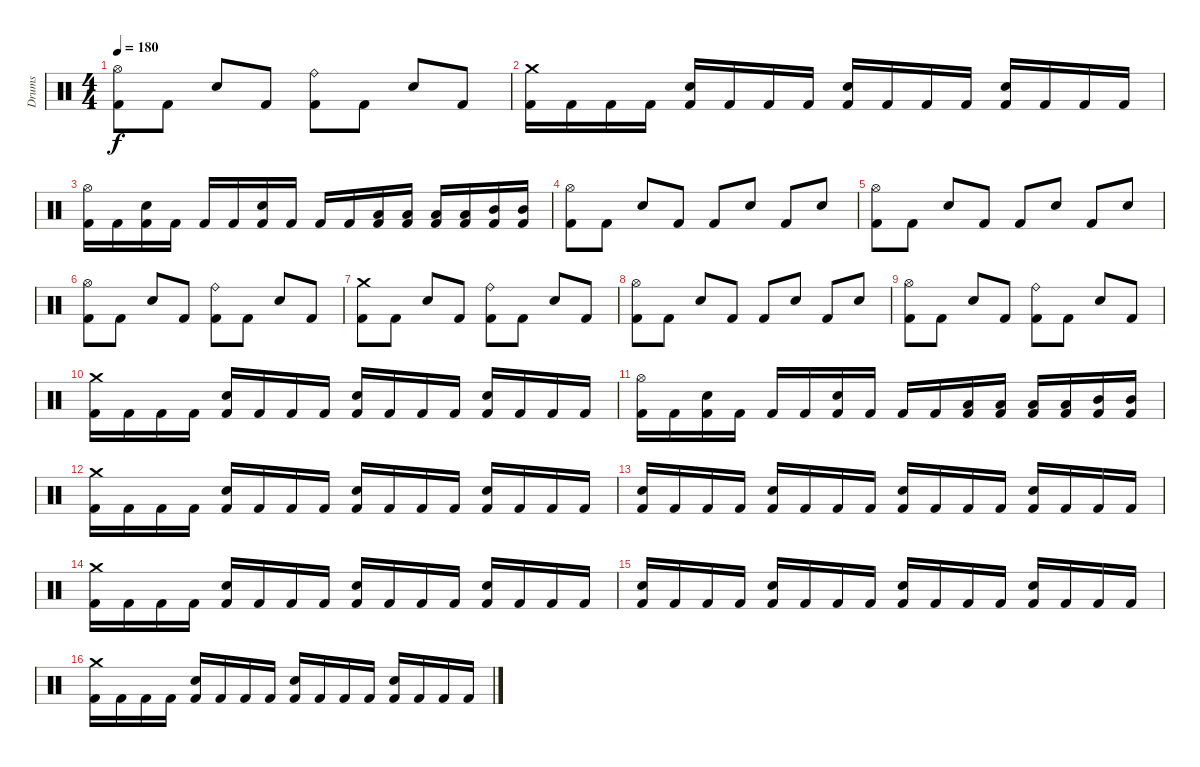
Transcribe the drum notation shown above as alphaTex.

\track ("Drums" "Drums") {instrument percussion}
\staff {score}
\articulation defaults
\ts (4 4)
\tempo 180
\clef neutral
\ks c
("Hi-Hat (open)" "Kick (hit) 2").8{dy f} "Kick (hit) 2".8 "Snare (hit) 2".8 "Kick (hit) 2".8 ("Ride (bell)" "Kick (hit) 2").8 "Kick (hit) 2".8 "Snare (hit) 2".8 "Kick (hit) 2".8 |
("Crash medium (hit)" "Kick (hit) 2").16 "Kick (hit) 2".16 "Kick (hit) 2".16 "Kick (hit) 2".16 ("Snare (hit) 2" "Kick (hit) 2").16 "Kick (hit) 2".16 "Kick (hit) 2".16 "Kick (hit) 2".16 ("Snare (hit) 2" "Kick (hit) 2").16 "Kick (hit) 2".16 "Kick (hit) 2".16 "Kick (hit) 2".16 ("Snare (hit) 2" "Kick (hit) 2").16 "Kick (hit) 2".16 "Kick (hit) 2".16 "Kick (hit) 2".16 |
("Hi-Hat (open)" "Kick (hit) 2").16 "Kick (hit) 2".16 ("Snare (hit) 2" "Kick (hit) 2").16 "Kick (hit) 2".16 "Kick (hit) 2".16 "Kick (hit) 2".16 ("Snare (hit) 2" "Kick (hit) 2").16 "Kick (hit) 2".16 "Kick (hit) 2".16 "Kick (hit) 2".16 ("Low Tom (hit)" "Kick (hit) 2").16 ("Low Tom (hit)" "Kick (hit) 2").16 ("Low Tom (hit)" "Kick (hit) 2").16 ("Low Tom (hit)" "Kick (hit) 2").16 ("Mid Tom (hit)" "Kick (hit) 2").16 ("Mid Tom (hit)" "Kick (hit) 2").16 |
("Hi-Hat (open)" "Kick (hit) 2").8 "Kick (hit) 2".8 "Snare (hit) 2".8 "Kick (hit) 2".8 "Kick (hit) 2".8 "Snare (hit) 2".8 "Kick (hit) 2".8 "Snare (hit) 2".8 |
("Hi-Hat (open)" "Kick (hit) 2").8 "Kick (hit) 2".8 "Snare (hit) 2".8 "Kick (hit) 2".8 "Kick (hit) 2".8 "Snare (hit) 2".8 "Kick (hit) 2".8 "Snare (hit) 2".8 |
("Hi-Hat (open)" "Kick (hit) 2").8 "Kick (hit) 2".8 "Snare (hit) 2".8 "Kick (hit) 2".8 ("Ride (bell)" "Kick (hit) 2").8 "Kick (hit) 2".8 "Snare (hit) 2".8 "Kick (hit) 2".8 |
("Crash medium (hit)" "Kick (hit) 2").8 "Kick (hit) 2".8 "Snare (hit) 2".8 "Kick (hit) 2".8 ("Ride (bell)" "Kick (hit) 2").8 "Kick (hit) 2".8 "Snare (hit) 2".8 "Kick (hit) 2".8 |
("Hi-Hat (open)" "Kick (hit) 2").8 "Kick (hit) 2".8 "Snare (hit) 2".8 "Kick (hit) 2".8 "Kick (hit) 2".8 "Snare (hit) 2".8 "Kick (hit) 2".8 "Snare (hit) 2".8 |
("Hi-Hat (open)" "Kick (hit) 2").8 "Kick (hit) 2".8 "Snare (hit) 2".8 "Kick (hit) 2".8 ("Ride (bell)" "Kick (hit) 2").8 "Kick (hit) 2".8 "Snare (hit) 2".8 "Kick (hit) 2".8 |
("Crash medium (hit)" "Kick (hit) 2").16 "Kick (hit) 2".16 "Kick (hit) 2".16 "Kick (hit) 2".16 ("Snare (hit) 2" "Kick (hit) 2").16 "Kick (hit) 2".16 "Kick (hit) 2".16 "Kick (hit) 2".16 ("Snare (hit) 2" "Kick (hit) 2").16 "Kick (hit) 2".16 "Kick (hit) 2".16 "Kick (hit) 2".16 ("Snare (hit) 2" "Kick (hit) 2").16 "Kick (hit) 2".16 "Kick (hit) 2".16 "Kick (hit) 2".16 |
("Hi-Hat (open)" "Kick (hit) 2").16 "Kick (hit) 2".16 ("Snare (hit) 2" "Kick (hit) 2").16 "Kick (hit) 2".16 "Kick (hit) 2".16 "Kick (hit) 2".16 ("Snare (hit) 2" "Kick (hit) 2").16 "Kick (hit) 2".16 "Kick (hit) 2".16 "Kick (hit) 2".16 ("Low Tom (hit)" "Kick (hit) 2").16 ("Low Tom (hit)" "Kick (hit) 2").16 ("Low Tom (hit)" "Kick (hit) 2").16 ("Low Tom (hit)" "Kick (hit) 2").16 ("Mid Tom (hit)" "Kick (hit) 2").16 ("Mid Tom (hit)" "Kick (hit) 2").16 |
("Crash medium (hit)" "Kick (hit) 2").16 "Kick (hit) 2".16 "Kick (hit) 2".16 "Kick (hit) 2".16 ("Snare (hit) 2" "Kick (hit) 2").16 "Kick (hit) 2".16 "Kick (hit) 2".16 "Kick (hit) 2".16 ("Snare (hit) 2" "Kick (hit) 2").16 "Kick (hit) 2".16 "Kick (hit) 2".16 "Kick (hit) 2".16 ("Snare (hit) 2" "Kick (hit) 2").16 "Kick (hit) 2".16 "Kick (hit) 2".16 "Kick (hit) 2".16 |
("Snare (hit) 2" "Kick (hit) 2").16 "Kick (hit) 2".16 "Kick (hit) 2".16 "Kick (hit) 2".16 ("Snare (hit) 2" "Kick (hit) 2").16 "Kick (hit) 2".16 "Kick (hit) 2".16 "Kick (hit) 2".16 ("Snare (hit) 2" "Kick (hit) 2").16 "Kick (hit) 2".16 "Kick (hit) 2".16 "Kick (hit) 2".16 ("Snare (hit) 2" "Kick (hit) 2").16 "Kick (hit) 2".16 "Kick (hit) 2".16 "Kick (hit) 2".16 |
("Crash medium (hit)" "Kick (hit) 2").16 "Kick (hit) 2".16 "Kick (hit) 2".16 "Kick (hit) 2".16 ("Snare (hit) 2" "Kick (hit) 2").16 "Kick (hit) 2".16 "Kick (hit) 2".16 "Kick (hit) 2".16 ("Snare (hit) 2" "Kick (hit) 2").16 "Kick (hit) 2".16 "Kick (hit) 2".16 "Kick (hit) 2".16 ("Snare (hit) 2" "Kick (hit) 2").16 "Kick (hit) 2".16 "Kick (hit) 2".16 "Kick (hit) 2".16 |
("Snare (hit) 2" "Kick (hit) 2").16 "Kick (hit) 2".16 "Kick (hit) 2".16 "Kick (hit) 2".16 ("Snare (hit) 2" "Kick (hit) 2").16 "Kick (hit) 2".16 "Kick (hit) 2".16 "Kick (hit) 2".16 ("Snare (hit) 2" "Kick (hit) 2").16 "Kick (hit) 2".16 "Kick (hit) 2".16 "Kick (hit) 2".16 ("Snare (hit) 2" "Kick (hit) 2").16 "Kick (hit) 2".16 "Kick (hit) 2".16 "Kick (hit) 2".16 |
("Crash medium (hit)" "Kick (hit) 2").16 "Kick (hit) 2".16 "Kick (hit) 2".16 "Kick (hit) 2".16 ("Snare (hit) 2" "Kick (hit) 2").16 "Kick (hit) 2".16 "Kick (hit) 2".16 "Kick (hit) 2".16 ("Snare (hit) 2" "Kick (hit) 2").16 "Kick (hit) 2".16 "Kick (hit) 2".16 "Kick (hit) 2".16 ("Snare (hit) 2" "Kick (hit) 2").16 "Kick (hit) 2".16 "Kick (hit) 2".16 "Kick (hit) 2".16
